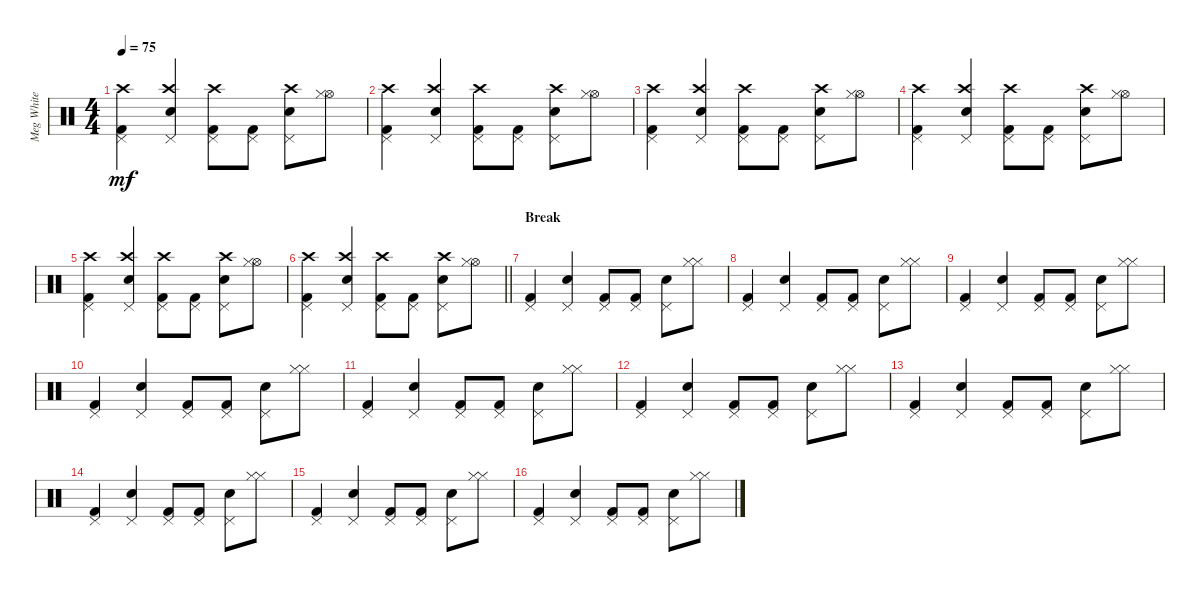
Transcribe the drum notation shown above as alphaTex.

\track ("Meg White" "Meg White") {instrument percussion}
\staff {score}
\articulation defaults
\ts (4 4)
\tempo 75
\clef neutral
\ks c
("Pedal Hi-Hat (hit)" "Kick (hit) 2" "Crash high (hit)").4{dy mf} ("Pedal Hi-Hat (hit)" "Electric Snare (hit)" "Crash high (hit)").4 ("Pedal Hi-Hat (hit)" "Kick (hit) 2" "Crash high (hit)").8 ("Pedal Hi-Hat (hit)" "Kick (hit) 2").8 ("Pedal Hi-Hat (hit)" "Electric Snare (hit)" "Crash high (hit)").8 ("Hi-Hat (open)" "Hi-Hat (closed)").8 |
("Pedal Hi-Hat (hit)" "Kick (hit) 2" "Crash high (hit)").4 ("Pedal Hi-Hat (hit)" "Electric Snare (hit)" "Crash high (hit)").4 ("Pedal Hi-Hat (hit)" "Kick (hit) 2" "Crash high (hit)").8 ("Pedal Hi-Hat (hit)" "Kick (hit) 2").8 ("Pedal Hi-Hat (hit)" "Electric Snare (hit)" "Crash high (hit)").8 ("Hi-Hat (open)" "Hi-Hat (closed)").8 |
("Pedal Hi-Hat (hit)" "Kick (hit) 2" "Crash high (hit)").4 ("Pedal Hi-Hat (hit)" "Electric Snare (hit)" "Crash high (hit)").4 ("Pedal Hi-Hat (hit)" "Kick (hit) 2" "Crash high (hit)").8 ("Pedal Hi-Hat (hit)" "Kick (hit) 2").8 ("Pedal Hi-Hat (hit)" "Electric Snare (hit)" "Crash high (hit)").8 ("Hi-Hat (open)" "Hi-Hat (closed)").8 |
("Pedal Hi-Hat (hit)" "Kick (hit) 2" "Crash high (hit)").4 ("Pedal Hi-Hat (hit)" "Electric Snare (hit)" "Crash high (hit)").4 ("Pedal Hi-Hat (hit)" "Kick (hit) 2" "Crash high (hit)").8 ("Pedal Hi-Hat (hit)" "Kick (hit) 2").8 ("Pedal Hi-Hat (hit)" "Electric Snare (hit)" "Crash high (hit)").8 ("Hi-Hat (open)" "Hi-Hat (closed)").8 |
("Pedal Hi-Hat (hit)" "Kick (hit) 2" "Crash high (hit)").4 ("Pedal Hi-Hat (hit)" "Electric Snare (hit)" "Crash high (hit)").4 ("Pedal Hi-Hat (hit)" "Kick (hit) 2" "Crash high (hit)").8 ("Pedal Hi-Hat (hit)" "Kick (hit) 2").8 ("Pedal Hi-Hat (hit)" "Electric Snare (hit)" "Crash high (hit)").8 ("Hi-Hat (open)" "Hi-Hat (closed)").8 |
\barLineRight lightlight
("Pedal Hi-Hat (hit)" "Kick (hit) 2" "Crash high (hit)").4 ("Pedal Hi-Hat (hit)" "Electric Snare (hit)" "Crash high (hit)").4 ("Pedal Hi-Hat (hit)" "Kick (hit) 2" "Crash high (hit)").8 ("Pedal Hi-Hat (hit)" "Kick (hit) 2").8 ("Pedal Hi-Hat (hit)" "Electric Snare (hit)" "Crash high (hit)").8 ("Hi-Hat (open)" "Hi-Hat (closed)").8 |
\section ("" "Break")
("Pedal Hi-Hat (hit)" "Kick (hit) 2").4 ("Pedal Hi-Hat (hit)" "Electric Snare (hit)").4 ("Pedal Hi-Hat (hit)" "Kick (hit) 2").8 ("Pedal Hi-Hat (hit)" "Kick (hit) 2").8 ("Pedal Hi-Hat (hit)" "Electric Snare (hit)").8 ("Hi-Hat (closed)" "Hi-Hat (closed)").8 |
("Pedal Hi-Hat (hit)" "Kick (hit) 2").4 ("Pedal Hi-Hat (hit)" "Electric Snare (hit)").4 ("Pedal Hi-Hat (hit)" "Kick (hit) 2").8 ("Pedal Hi-Hat (hit)" "Kick (hit) 2").8 ("Pedal Hi-Hat (hit)" "Electric Snare (hit)").8 ("Hi-Hat (closed)" "Hi-Hat (closed)").8 |
("Pedal Hi-Hat (hit)" "Kick (hit) 2").4 ("Pedal Hi-Hat (hit)" "Electric Snare (hit)").4 ("Pedal Hi-Hat (hit)" "Kick (hit) 2").8 ("Pedal Hi-Hat (hit)" "Kick (hit) 2").8 ("Pedal Hi-Hat (hit)" "Electric Snare (hit)").8 ("Hi-Hat (closed)" "Hi-Hat (closed)").8 |
("Pedal Hi-Hat (hit)" "Kick (hit) 2").4 ("Pedal Hi-Hat (hit)" "Electric Snare (hit)").4 ("Pedal Hi-Hat (hit)" "Kick (hit) 2").8 ("Pedal Hi-Hat (hit)" "Kick (hit) 2").8 ("Pedal Hi-Hat (hit)" "Electric Snare (hit)").8 ("Hi-Hat (closed)" "Hi-Hat (closed)").8 |
("Pedal Hi-Hat (hit)" "Kick (hit) 2").4 ("Pedal Hi-Hat (hit)" "Electric Snare (hit)").4 ("Pedal Hi-Hat (hit)" "Kick (hit) 2").8 ("Pedal Hi-Hat (hit)" "Kick (hit) 2").8 ("Pedal Hi-Hat (hit)" "Electric Snare (hit)").8 ("Hi-Hat (closed)" "Hi-Hat (closed)").8 |
("Pedal Hi-Hat (hit)" "Kick (hit) 2").4 ("Pedal Hi-Hat (hit)" "Electric Snare (hit)").4 ("Pedal Hi-Hat (hit)" "Kick (hit) 2").8 ("Pedal Hi-Hat (hit)" "Kick (hit) 2").8 ("Pedal Hi-Hat (hit)" "Electric Snare (hit)").8 ("Hi-Hat (closed)" "Hi-Hat (closed)").8 |
("Pedal Hi-Hat (hit)" "Kick (hit) 2").4 ("Pedal Hi-Hat (hit)" "Electric Snare (hit)").4 ("Pedal Hi-Hat (hit)" "Kick (hit) 2").8 ("Pedal Hi-Hat (hit)" "Kick (hit) 2").8 ("Pedal Hi-Hat (hit)" "Electric Snare (hit)").8 ("Hi-Hat (closed)" "Hi-Hat (closed)").8 |
("Pedal Hi-Hat (hit)" "Kick (hit) 2").4 ("Pedal Hi-Hat (hit)" "Electric Snare (hit)").4 ("Pedal Hi-Hat (hit)" "Kick (hit) 2").8 ("Pedal Hi-Hat (hit)" "Kick (hit) 2").8 ("Pedal Hi-Hat (hit)" "Electric Snare (hit)").8 ("Hi-Hat (closed)" "Hi-Hat (closed)").8 |
("Pedal Hi-Hat (hit)" "Kick (hit) 2").4 ("Pedal Hi-Hat (hit)" "Electric Snare (hit)").4 ("Pedal Hi-Hat (hit)" "Kick (hit) 2").8 ("Pedal Hi-Hat (hit)" "Kick (hit) 2").8 ("Pedal Hi-Hat (hit)" "Electric Snare (hit)").8 ("Hi-Hat (closed)" "Hi-Hat (closed)").8 |
("Pedal Hi-Hat (hit)" "Kick (hit) 2").4 ("Pedal Hi-Hat (hit)" "Electric Snare (hit)").4 ("Pedal Hi-Hat (hit)" "Kick (hit) 2").8 ("Pedal Hi-Hat (hit)" "Kick (hit) 2").8 ("Pedal Hi-Hat (hit)" "Electric Snare (hit)").8 ("Hi-Hat (closed)" "Hi-Hat (closed)").8
